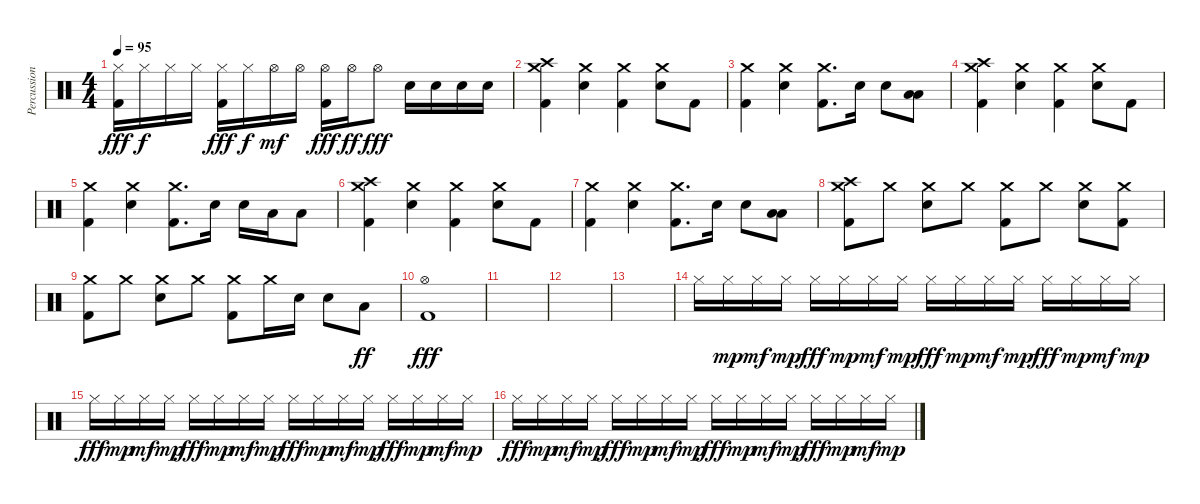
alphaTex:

\track ("Percussion" "Percussion") {instrument percussion}
\staff {score}
\articulation defaults
\ts (4 4)
\tempo 95
\clef neutral
\ks c
("Hi-Hat (closed)" "Kick (hit) 2").16{dy fff} "Hi-Hat (closed)".16{dy f} "Hi-Hat (closed)".16 "Hi-Hat (closed)".16 ("Hi-Hat (closed)" "Kick (hit) 2").16{dy fff} "Hi-Hat (closed)".16{dy f} "Hi-Hat (open)".16{dy mf} "Hi-Hat (open)".16 ("Hi-Hat (open)" "Kick (hit) 2").16{dy fff} "Hi-Hat (open)".16{dy ff} "Hi-Hat (open)".8{dy fff} "Electric Snare (hit)".16 "Electric Snare (hit)".16 "Electric Snare (hit)".16 "Electric Snare (hit)".16 |
("Crash high (hit)" "Crash medium (hit)" "Kick (hit) 2").4 ("Crash medium (hit)" "Electric Snare (hit)").4 ("Crash medium (hit)" "Kick (hit) 2").4 ("Crash medium (hit)" "Electric Snare (hit)").8 "Kick (hit) 2".8 |
("Crash medium (hit)" "Kick (hit) 2").4 ("Crash medium (hit)" "Electric Snare (hit)").4 ("Crash medium (hit)" "Kick (hit) 2").8{d} "Electric Snare (hit)".16 "Electric Snare (hit)".8 ("Low Tom (hit)" "Low Floor Tom (hit)").8 |
("Crash high (hit)" "Crash medium (hit)" "Kick (hit) 2").4 ("Crash medium (hit)" "Electric Snare (hit)").4 ("Crash medium (hit)" "Kick (hit) 2").4 ("Crash medium (hit)" "Electric Snare (hit)").8 "Kick (hit) 2".8 |
("Crash medium (hit)" "Kick (hit) 2").4 ("Crash medium (hit)" "Electric Snare (hit)").4 ("Crash medium (hit)" "Kick (hit) 2").8{d} "Electric Snare (hit)".16 "Electric Snare (hit)".16 "Low Tom (hit)".16 "Low Floor Tom (hit)".8 |
("Crash high (hit)" "Crash medium (hit)" "Kick (hit) 2").4 ("Crash medium (hit)" "Electric Snare (hit)").4 ("Crash medium (hit)" "Kick (hit) 2").4 ("Crash medium (hit)" "Electric Snare (hit)").8 "Kick (hit) 2".8 |
("Crash medium (hit)" "Kick (hit) 2").4 ("Crash medium (hit)" "Electric Snare (hit)").4 ("Crash medium (hit)" "Kick (hit) 2").8{d} "Electric Snare (hit)".16 "Electric Snare (hit)".8 ("Low Tom (hit)" "Low Floor Tom (hit)").8 |
("Crash high (hit)" "Crash medium (hit)" "Kick (hit) 2").8 "Crash medium (hit)".8 ("Crash medium (hit)" "Electric Snare (hit)").8 "Crash medium (hit)".8 ("Crash medium (hit)" "Kick (hit) 2").8 "Crash medium (hit)".8 ("Crash medium (hit)" "Electric Snare (hit)").8 ("Crash medium (hit)" "Kick (hit) 2").8 |
("Crash medium (hit)" "Kick (hit) 2").8 "Crash medium (hit)".8 ("Crash medium (hit)" "Electric Snare (hit)").8 "Crash medium (hit)".8 ("Crash medium (hit)" "Kick (hit) 2").8 "Crash medium (hit)".16 "Electric Snare (hit)".16 "Electric Snare (hit)".8 "Low Tom (hit)".8{dy ff} |
("Hi-Hat (open)" "Kick (hit) 2").1{dy fff} |
|
|
|
"Hi-Hat (closed)".16 "Hi-Hat (closed)".16{dy mp} "Hi-Hat (closed)".16{dy mf} "Hi-Hat (closed)".16{dy mp} "Hi-Hat (closed)".16{dy fff} "Hi-Hat (closed)".16{dy mp} "Hi-Hat (closed)".16{dy mf} "Hi-Hat (closed)".16{dy mp} "Hi-Hat (closed)".16{dy fff} "Hi-Hat (closed)".16{dy mp} "Hi-Hat (closed)".16{dy mf} "Hi-Hat (closed)".16{dy mp} "Hi-Hat (closed)".16{dy fff} "Hi-Hat (closed)".16{dy mp} "Hi-Hat (closed)".16{dy mf} "Hi-Hat (closed)".16{dy mp} |
"Hi-Hat (closed)".16{dy fff} "Hi-Hat (closed)".16{dy mp} "Hi-Hat (closed)".16{dy mf} "Hi-Hat (closed)".16{dy mp} "Hi-Hat (closed)".16{dy fff} "Hi-Hat (closed)".16{dy mp} "Hi-Hat (closed)".16{dy mf} "Hi-Hat (closed)".16{dy mp} "Hi-Hat (closed)".16{dy fff} "Hi-Hat (closed)".16{dy mp} "Hi-Hat (closed)".16{dy mf} "Hi-Hat (closed)".16{dy mp} "Hi-Hat (closed)".16{dy fff} "Hi-Hat (closed)".16{dy mp} "Hi-Hat (closed)".16{dy mf} "Hi-Hat (closed)".16{dy mp} |
"Hi-Hat (closed)".16{dy fff} "Hi-Hat (closed)".16{dy mp} "Hi-Hat (closed)".16{dy mf} "Hi-Hat (closed)".16{dy mp} "Hi-Hat (closed)".16{dy fff} "Hi-Hat (closed)".16{dy mp} "Hi-Hat (closed)".16{dy mf} "Hi-Hat (closed)".16{dy mp} "Hi-Hat (closed)".16{dy fff} "Hi-Hat (closed)".16{dy mp} "Hi-Hat (closed)".16{dy mf} "Hi-Hat (closed)".16{dy mp} "Hi-Hat (closed)".16{dy fff} "Hi-Hat (closed)".16{dy mp} "Hi-Hat (closed)".16{dy mf} "Hi-Hat (closed)".16{dy mp}
